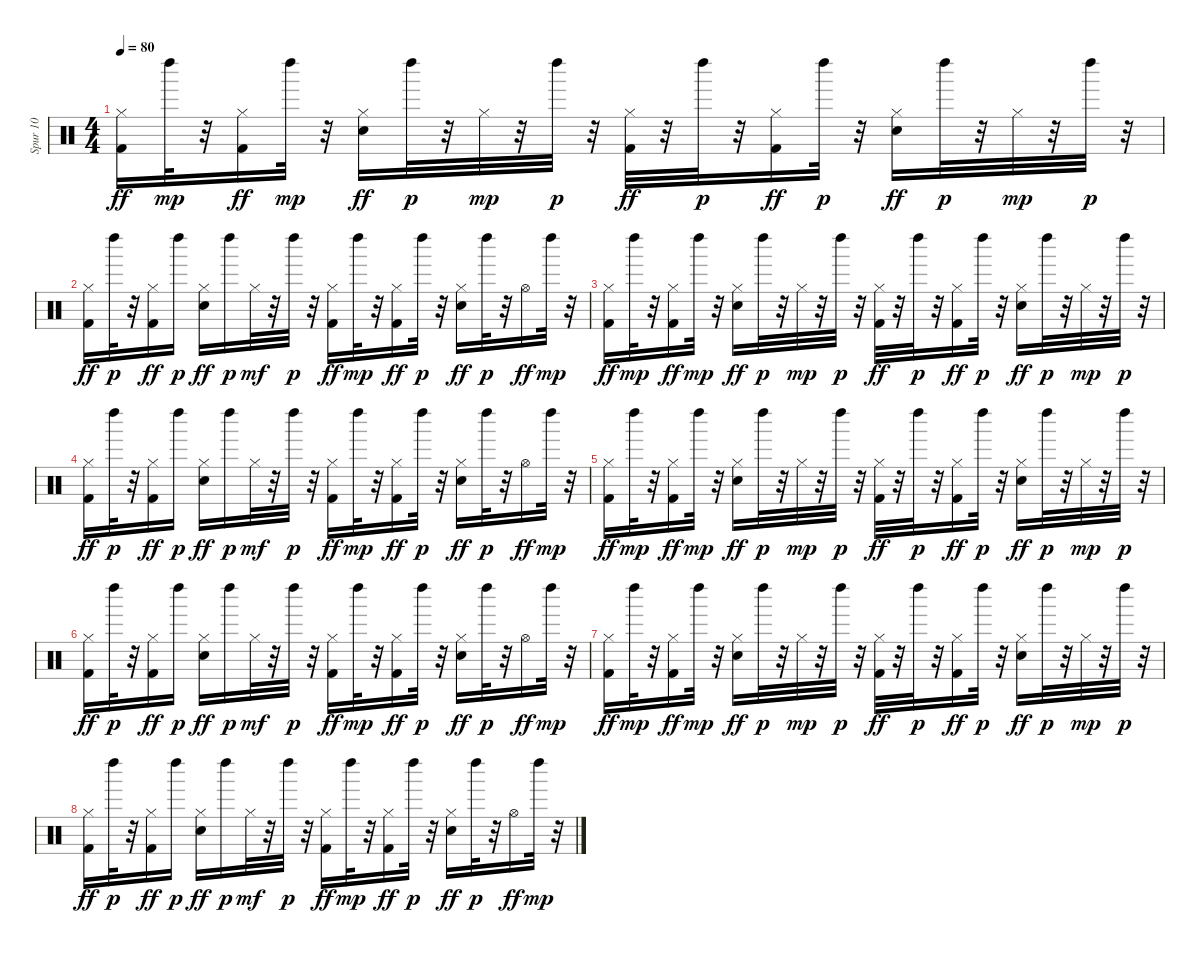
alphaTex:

\track ("Spur 10" "Spur 10") {instrument percussion}
\staff {score}
\articulation defaults
\ts (4 4)
\tempo 80
\clef neutral
\ks c
("Hi-Hat (closed)" "Kick (hit) 2").16{dy ff} "Left Maraca (hit)".32{dy mp} r.32 ("Hi-Hat (closed)" "Kick (hit) 2").16{dy ff} "Left Maraca (hit)".32{dy mp} r.32 ("Electric Snare (hit)" "Hi-Hat (closed)").16{dy ff} "Left Maraca (hit)".32{dy p} r.32 "Hi-Hat (closed)".32{dy mp} r.32 "Left Maraca (hit)".32{dy p} r.32 ("Hi-Hat (closed)" "Kick (hit) 2").32{dy ff} r.32 "Left Maraca (hit)".32{dy p} r.32 ("Hi-Hat (closed)" "Kick (hit) 2").16{dy ff} "Left Maraca (hit)".32{dy p} r.32 ("Electric Snare (hit)" "Hi-Hat (closed)").16{dy ff} "Left Maraca (hit)".32{dy p} r.32 "Hi-Hat (closed)".32{dy mp} r.32 "Left Maraca (hit)".32{dy p} r.32 |
("Hi-Hat (closed)" "Kick (hit) 2").16{dy ff} "Left Maraca (hit)".32{dy p} r.32 ("Hi-Hat (closed)" "Kick (hit) 2").16{dy ff} "Left Maraca (hit)".16{dy p} ("Electric Snare (hit)" "Hi-Hat (closed)").16{dy ff} "Left Maraca (hit)".16{dy p} "Hi-Hat (closed)".32{dy mf} r.32 "Left Maraca (hit)".32{dy p} r.32 ("Hi-Hat (closed)" "Kick (hit) 2").16{dy ff} "Left Maraca (hit)".32{dy mp} r.32 ("Hi-Hat (closed)" "Kick (hit) 2").16{dy ff} "Left Maraca (hit)".32{dy p} r.32 ("Electric Snare (hit)" "Hi-Hat (closed)").16{dy ff} "Left Maraca (hit)".32{dy p} r.32 "Hi-Hat (open)".16{dy ff} "Left Maraca (hit)".32{dy mp} r.32 |
("Hi-Hat (closed)" "Kick (hit) 2").16{dy ff} "Left Maraca (hit)".32{dy mp} r.32 ("Hi-Hat (closed)" "Kick (hit) 2").16{dy ff} "Left Maraca (hit)".32{dy mp} r.32 ("Electric Snare (hit)" "Hi-Hat (closed)").16{dy ff} "Left Maraca (hit)".32{dy p} r.32 "Hi-Hat (closed)".32{dy mp} r.32 "Left Maraca (hit)".32{dy p} r.32 ("Hi-Hat (closed)" "Kick (hit) 2").32{dy ff} r.32 "Left Maraca (hit)".32{dy p} r.32 ("Hi-Hat (closed)" "Kick (hit) 2").16{dy ff} "Left Maraca (hit)".32{dy p} r.32 ("Electric Snare (hit)" "Hi-Hat (closed)").16{dy ff} "Left Maraca (hit)".32{dy p} r.32 "Hi-Hat (closed)".32{dy mp} r.32 "Left Maraca (hit)".32{dy p} r.32 |
("Hi-Hat (closed)" "Kick (hit) 2").16{dy ff} "Left Maraca (hit)".32{dy p} r.32 ("Hi-Hat (closed)" "Kick (hit) 2").16{dy ff} "Left Maraca (hit)".16{dy p} ("Electric Snare (hit)" "Hi-Hat (closed)").16{dy ff} "Left Maraca (hit)".16{dy p} "Hi-Hat (closed)".32{dy mf} r.32 "Left Maraca (hit)".32{dy p} r.32 ("Hi-Hat (closed)" "Kick (hit) 2").16{dy ff} "Left Maraca (hit)".32{dy mp} r.32 ("Hi-Hat (closed)" "Kick (hit) 2").16{dy ff} "Left Maraca (hit)".32{dy p} r.32 ("Electric Snare (hit)" "Hi-Hat (closed)").16{dy ff} "Left Maraca (hit)".32{dy p} r.32 "Hi-Hat (open)".16{dy ff} "Left Maraca (hit)".32{dy mp} r.32 |
("Hi-Hat (closed)" "Kick (hit) 2").16{dy ff} "Left Maraca (hit)".32{dy mp} r.32 ("Hi-Hat (closed)" "Kick (hit) 2").16{dy ff} "Left Maraca (hit)".32{dy mp} r.32 ("Electric Snare (hit)" "Hi-Hat (closed)").16{dy ff} "Left Maraca (hit)".32{dy p} r.32 "Hi-Hat (closed)".32{dy mp} r.32 "Left Maraca (hit)".32{dy p} r.32 ("Hi-Hat (closed)" "Kick (hit) 2").32{dy ff} r.32 "Left Maraca (hit)".32{dy p} r.32 ("Hi-Hat (closed)" "Kick (hit) 2").16{dy ff} "Left Maraca (hit)".32{dy p} r.32 ("Electric Snare (hit)" "Hi-Hat (closed)").16{dy ff} "Left Maraca (hit)".32{dy p} r.32 "Hi-Hat (closed)".32{dy mp} r.32 "Left Maraca (hit)".32{dy p} r.32 |
("Hi-Hat (closed)" "Kick (hit) 2").16{dy ff} "Left Maraca (hit)".32{dy p} r.32 ("Hi-Hat (closed)" "Kick (hit) 2").16{dy ff} "Left Maraca (hit)".16{dy p} ("Electric Snare (hit)" "Hi-Hat (closed)").16{dy ff} "Left Maraca (hit)".16{dy p} "Hi-Hat (closed)".32{dy mf} r.32 "Left Maraca (hit)".32{dy p} r.32 ("Hi-Hat (closed)" "Kick (hit) 2").16{dy ff} "Left Maraca (hit)".32{dy mp} r.32 ("Hi-Hat (closed)" "Kick (hit) 2").16{dy ff} "Left Maraca (hit)".32{dy p} r.32 ("Electric Snare (hit)" "Hi-Hat (closed)").16{dy ff} "Left Maraca (hit)".32{dy p} r.32 "Hi-Hat (open)".16{dy ff} "Left Maraca (hit)".32{dy mp} r.32 |
("Hi-Hat (closed)" "Kick (hit) 2").16{dy ff} "Left Maraca (hit)".32{dy mp} r.32 ("Hi-Hat (closed)" "Kick (hit) 2").16{dy ff} "Left Maraca (hit)".32{dy mp} r.32 ("Electric Snare (hit)" "Hi-Hat (closed)").16{dy ff} "Left Maraca (hit)".32{dy p} r.32 "Hi-Hat (closed)".32{dy mp} r.32 "Left Maraca (hit)".32{dy p} r.32 ("Hi-Hat (closed)" "Kick (hit) 2").32{dy ff} r.32 "Left Maraca (hit)".32{dy p} r.32 ("Hi-Hat (closed)" "Kick (hit) 2").16{dy ff} "Left Maraca (hit)".32{dy p} r.32 ("Electric Snare (hit)" "Hi-Hat (closed)").16{dy ff} "Left Maraca (hit)".32{dy p} r.32 "Hi-Hat (closed)".32{dy mp} r.32 "Left Maraca (hit)".32{dy p} r.32 |
("Hi-Hat (closed)" "Kick (hit) 2").16{dy ff} "Left Maraca (hit)".32{dy p} r.32 ("Hi-Hat (closed)" "Kick (hit) 2").16{dy ff} "Left Maraca (hit)".16{dy p} ("Electric Snare (hit)" "Hi-Hat (closed)").16{dy ff} "Left Maraca (hit)".16{dy p} "Hi-Hat (closed)".32{dy mf} r.32 "Left Maraca (hit)".32{dy p} r.32 ("Hi-Hat (closed)" "Kick (hit) 2").16{dy ff} "Left Maraca (hit)".32{dy mp} r.32 ("Hi-Hat (closed)" "Kick (hit) 2").16{dy ff} "Left Maraca (hit)".32{dy p} r.32 ("Electric Snare (hit)" "Hi-Hat (closed)").16{dy ff} "Left Maraca (hit)".32{dy p} r.32 "Hi-Hat (open)".16{dy ff} "Left Maraca (hit)".32{dy mp} r.32
